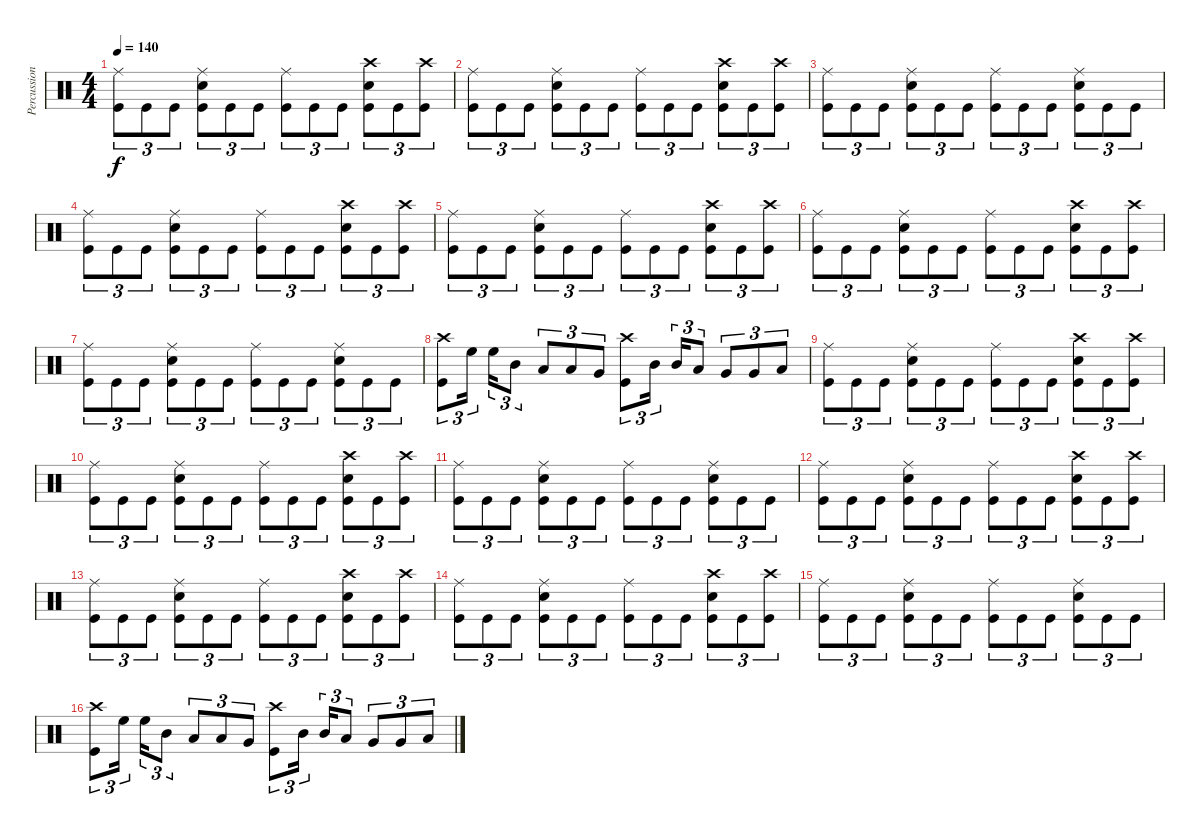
\track ("Percussion" "Percussion") {instrument percussion}
\staff {score}
\articulation defaults
\ts (4 4)
\tempo 140
\clef neutral
\ks c
("Ride (middle)" "Kick (hit)").8{tu (3 2) dy f} "Kick (hit)".8{tu (3 2)} "Kick (hit)".8{tu (3 2)} ("Ride (middle)" "Snare (hit) 2" "Kick (hit)").8{tu (3 2)} "Kick (hit)".8{tu (3 2)} "Kick (hit)".8{tu (3 2)} ("Ride (middle)" "Kick (hit)").8{tu (3 2)} "Kick (hit)".8{tu (3 2)} "Kick (hit)".8{tu (3 2)} ("Crash high (hit)" "Snare (hit) 2" "Kick (hit)").8{tu (3 2)} "Kick (hit)".8{tu (3 2)} ("Crash high (hit)" "Kick (hit)").8{tu (3 2)} |
("Ride (middle)" "Kick (hit)").8{tu (3 2)} "Kick (hit)".8{tu (3 2)} "Kick (hit)".8{tu (3 2)} ("Ride (middle)" "Snare (hit) 2" "Kick (hit)").8{tu (3 2)} "Kick (hit)".8{tu (3 2)} "Kick (hit)".8{tu (3 2)} ("Ride (middle)" "Kick (hit)").8{tu (3 2)} "Kick (hit)".8{tu (3 2)} "Kick (hit)".8{tu (3 2)} ("Crash high (hit)" "Snare (hit) 2" "Kick (hit)").8{tu (3 2)} "Kick (hit)".8{tu (3 2)} ("Crash high (hit)" "Kick (hit)").8{tu (3 2)} |
("Ride (middle)" "Kick (hit)").8{tu (3 2)} "Kick (hit)".8{tu (3 2)} "Kick (hit)".8{tu (3 2)} ("Ride (middle)" "Snare (hit) 2" "Kick (hit)").8{tu (3 2)} "Kick (hit)".8{tu (3 2)} "Kick (hit)".8{tu (3 2)} ("Ride (middle)" "Kick (hit)").8{tu (3 2)} "Kick (hit)".8{tu (3 2)} "Kick (hit)".8{tu (3 2)} ("Ride (middle)" "Snare (hit) 2" "Kick (hit)").8{tu (3 2)} "Kick (hit)".8{tu (3 2)} "Kick (hit)".8{tu (3 2)} |
("Ride (middle)" "Kick (hit)").8{tu (3 2)} "Kick (hit)".8{tu (3 2)} "Kick (hit)".8{tu (3 2)} ("Ride (middle)" "Snare (hit) 2" "Kick (hit)").8{tu (3 2)} "Kick (hit)".8{tu (3 2)} "Kick (hit)".8{tu (3 2)} ("Ride (middle)" "Kick (hit)").8{tu (3 2)} "Kick (hit)".8{tu (3 2)} "Kick (hit)".8{tu (3 2)} ("Crash high (hit)" "Snare (hit) 2" "Kick (hit)").8{tu (3 2)} "Kick (hit)".8{tu (3 2)} ("Crash high (hit)" "Kick (hit)").8{tu (3 2)} |
("Ride (middle)" "Kick (hit)").8{tu (3 2)} "Kick (hit)".8{tu (3 2)} "Kick (hit)".8{tu (3 2)} ("Ride (middle)" "Snare (hit) 2" "Kick (hit)").8{tu (3 2)} "Kick (hit)".8{tu (3 2)} "Kick (hit)".8{tu (3 2)} ("Ride (middle)" "Kick (hit)").8{tu (3 2)} "Kick (hit)".8{tu (3 2)} "Kick (hit)".8{tu (3 2)} ("Crash high (hit)" "Snare (hit) 2" "Kick (hit)").8{tu (3 2)} "Kick (hit)".8{tu (3 2)} ("Crash high (hit)" "Kick (hit)").8{tu (3 2)} |
("Ride (middle)" "Kick (hit)").8{tu (3 2)} "Kick (hit)".8{tu (3 2)} "Kick (hit)".8{tu (3 2)} ("Ride (middle)" "Snare (hit) 2" "Kick (hit)").8{tu (3 2)} "Kick (hit)".8{tu (3 2)} "Kick (hit)".8{tu (3 2)} ("Ride (middle)" "Kick (hit)").8{tu (3 2)} "Kick (hit)".8{tu (3 2)} "Kick (hit)".8{tu (3 2)} ("Crash high (hit)" "Snare (hit) 2" "Kick (hit)").8{tu (3 2)} "Kick (hit)".8{tu (3 2)} ("Crash high (hit)" "Kick (hit)").8{tu (3 2)} |
("Ride (middle)" "Kick (hit)").8{tu (3 2)} "Kick (hit)".8{tu (3 2)} "Kick (hit)".8{tu (3 2)} ("Ride (middle)" "Snare (hit) 2" "Kick (hit)").8{tu (3 2)} "Kick (hit)".8{tu (3 2)} "Kick (hit)".8{tu (3 2)} ("Ride (middle)" "Kick (hit)").8{tu (3 2)} "Kick (hit)".8{tu (3 2)} "Kick (hit)".8{tu (3 2)} ("Ride (middle)" "Snare (hit) 2" "Kick (hit)").8{tu (3 2)} "Kick (hit)".8{tu (3 2)} "Kick (hit)".8{tu (3 2)} |
("Crash high (hit)" "Kick (hit)").8{tu (3 2)} "High Floor Tom (hit)".16{tu (3 2) beam splitsecondary} "High Floor Tom (hit)".16{tu (3 2)} "Mid Tom (hit)".8{tu (3 2)} "Low Tom (hit)".8{tu (3 2)} "Low Tom (hit)".8{tu (3 2)} "Very Low Tom (hit)".8{tu (3 2)} ("Crash high (hit)" "Kick (hit)").8{tu (3 2)} "Mid Tom (hit)".16{tu (3 2) beam splitsecondary} "Mid Tom (hit)".16{tu (3 2)} "Low Tom (hit)".8{tu (3 2)} "Very Low Tom (hit)".8{tu (3 2)} "Very Low Tom (hit)".8{tu (3 2)} "Low Floor Tom (hit)".8{tu (3 2)} |
("Ride (middle)" "Kick (hit)").8{tu (3 2)} "Kick (hit)".8{tu (3 2)} "Kick (hit)".8{tu (3 2)} ("Ride (middle)" "Snare (hit) 2" "Kick (hit)").8{tu (3 2)} "Kick (hit)".8{tu (3 2)} "Kick (hit)".8{tu (3 2)} ("Ride (middle)" "Kick (hit)").8{tu (3 2)} "Kick (hit)".8{tu (3 2)} "Kick (hit)".8{tu (3 2)} ("Crash high (hit)" "Snare (hit) 2" "Kick (hit)").8{tu (3 2)} "Kick (hit)".8{tu (3 2)} ("Crash high (hit)" "Kick (hit)").8{tu (3 2)} |
("Ride (middle)" "Kick (hit)").8{tu (3 2)} "Kick (hit)".8{tu (3 2)} "Kick (hit)".8{tu (3 2)} ("Ride (middle)" "Snare (hit) 2" "Kick (hit)").8{tu (3 2)} "Kick (hit)".8{tu (3 2)} "Kick (hit)".8{tu (3 2)} ("Ride (middle)" "Kick (hit)").8{tu (3 2)} "Kick (hit)".8{tu (3 2)} "Kick (hit)".8{tu (3 2)} ("Crash high (hit)" "Snare (hit) 2" "Kick (hit)").8{tu (3 2)} "Kick (hit)".8{tu (3 2)} ("Crash high (hit)" "Kick (hit)").8{tu (3 2)} |
("Ride (middle)" "Kick (hit)").8{tu (3 2)} "Kick (hit)".8{tu (3 2)} "Kick (hit)".8{tu (3 2)} ("Ride (middle)" "Snare (hit) 2" "Kick (hit)").8{tu (3 2)} "Kick (hit)".8{tu (3 2)} "Kick (hit)".8{tu (3 2)} ("Ride (middle)" "Kick (hit)").8{tu (3 2)} "Kick (hit)".8{tu (3 2)} "Kick (hit)".8{tu (3 2)} ("Ride (middle)" "Snare (hit) 2" "Kick (hit)").8{tu (3 2)} "Kick (hit)".8{tu (3 2)} "Kick (hit)".8{tu (3 2)} |
("Ride (middle)" "Kick (hit)").8{tu (3 2)} "Kick (hit)".8{tu (3 2)} "Kick (hit)".8{tu (3 2)} ("Ride (middle)" "Snare (hit) 2" "Kick (hit)").8{tu (3 2)} "Kick (hit)".8{tu (3 2)} "Kick (hit)".8{tu (3 2)} ("Ride (middle)" "Kick (hit)").8{tu (3 2)} "Kick (hit)".8{tu (3 2)} "Kick (hit)".8{tu (3 2)} ("Crash high (hit)" "Snare (hit) 2" "Kick (hit)").8{tu (3 2)} "Kick (hit)".8{tu (3 2)} ("Crash high (hit)" "Kick (hit)").8{tu (3 2)} |
("Ride (middle)" "Kick (hit)").8{tu (3 2)} "Kick (hit)".8{tu (3 2)} "Kick (hit)".8{tu (3 2)} ("Ride (middle)" "Snare (hit) 2" "Kick (hit)").8{tu (3 2)} "Kick (hit)".8{tu (3 2)} "Kick (hit)".8{tu (3 2)} ("Ride (middle)" "Kick (hit)").8{tu (3 2)} "Kick (hit)".8{tu (3 2)} "Kick (hit)".8{tu (3 2)} ("Crash high (hit)" "Snare (hit) 2" "Kick (hit)").8{tu (3 2)} "Kick (hit)".8{tu (3 2)} ("Crash high (hit)" "Kick (hit)").8{tu (3 2)} |
("Ride (middle)" "Kick (hit)").8{tu (3 2)} "Kick (hit)".8{tu (3 2)} "Kick (hit)".8{tu (3 2)} ("Ride (middle)" "Snare (hit) 2" "Kick (hit)").8{tu (3 2)} "Kick (hit)".8{tu (3 2)} "Kick (hit)".8{tu (3 2)} ("Ride (middle)" "Kick (hit)").8{tu (3 2)} "Kick (hit)".8{tu (3 2)} "Kick (hit)".8{tu (3 2)} ("Crash high (hit)" "Snare (hit) 2" "Kick (hit)").8{tu (3 2)} "Kick (hit)".8{tu (3 2)} ("Crash high (hit)" "Kick (hit)").8{tu (3 2)} |
("Ride (middle)" "Kick (hit)").8{tu (3 2)} "Kick (hit)".8{tu (3 2)} "Kick (hit)".8{tu (3 2)} ("Ride (middle)" "Snare (hit) 2" "Kick (hit)").8{tu (3 2)} "Kick (hit)".8{tu (3 2)} "Kick (hit)".8{tu (3 2)} ("Ride (middle)" "Kick (hit)").8{tu (3 2)} "Kick (hit)".8{tu (3 2)} "Kick (hit)".8{tu (3 2)} ("Ride (middle)" "Snare (hit) 2" "Kick (hit)").8{tu (3 2)} "Kick (hit)".8{tu (3 2)} "Kick (hit)".8{tu (3 2)} |
("Crash high (hit)" "Kick (hit)").8{tu (3 2)} "High Floor Tom (hit)".16{tu (3 2) beam splitsecondary} "High Floor Tom (hit)".16{tu (3 2)} "Mid Tom (hit)".8{tu (3 2)} "Low Tom (hit)".8{tu (3 2)} "Low Tom (hit)".8{tu (3 2)} "Very Low Tom (hit)".8{tu (3 2)} ("Crash high (hit)" "Kick (hit)").8{tu (3 2)} "Mid Tom (hit)".16{tu (3 2) beam splitsecondary} "Mid Tom (hit)".16{tu (3 2)} "Low Tom (hit)".8{tu (3 2)} "Very Low Tom (hit)".8{tu (3 2)} "Very Low Tom (hit)".8{tu (3 2)} "Low Floor Tom (hit)".8{tu (3 2)}
